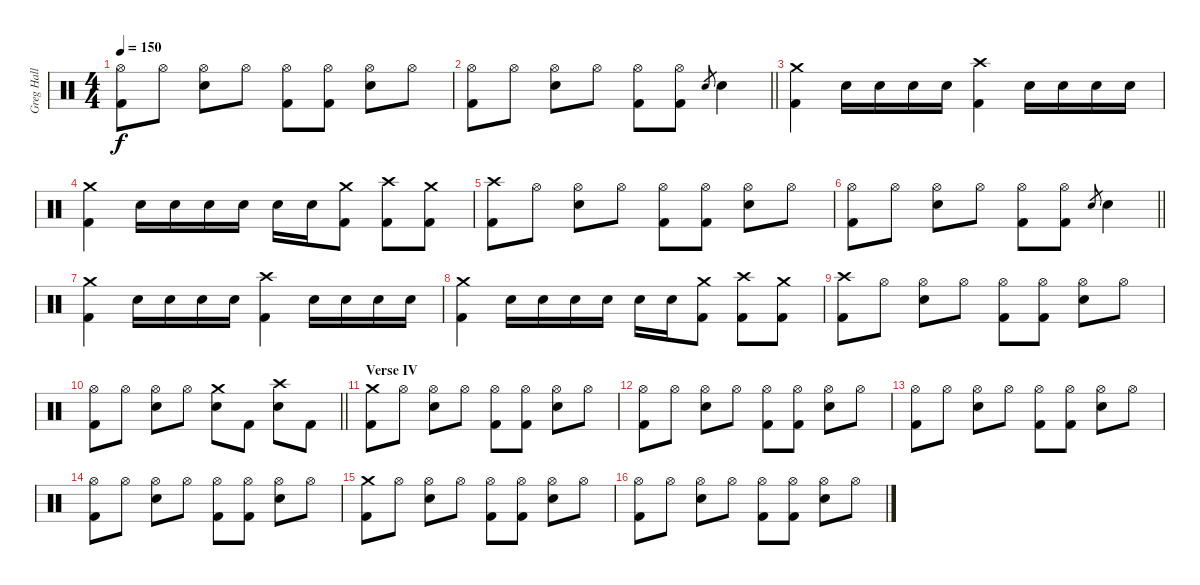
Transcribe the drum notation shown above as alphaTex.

\track ("Greg Hall" "Greg Hall") {instrument percussion}
\staff {score}
\articulation defaults
\ts (4 4)
\tempo 150
\clef neutral
\ks c
("Hi-Hat (open)" "Kick (hit) 2").8{dy f} "Hi-Hat (open)".8 ("Hi-Hat (open)" "Electric Snare (hit)").8 "Hi-Hat (open)".8 ("Hi-Hat (open)" "Kick (hit) 2").8 ("Hi-Hat (open)" "Kick (hit) 2").8 ("Hi-Hat (open)" "Electric Snare (hit)").8 "Hi-Hat (open)".8 |
\barLineRight lightlight
("Hi-Hat (open)" "Kick (hit) 2").8 "Hi-Hat (open)".8 ("Hi-Hat (open)" "Electric Snare (hit)").8 "Hi-Hat (open)".8 ("Hi-Hat (open)" "Kick (hit) 2").8 ("Hi-Hat (open)" "Kick (hit) 2").8 "Electric Snare (hit)".8{gr} "Electric Snare (hit)".4 |
("Crash medium (hit)" "Kick (hit) 2").4 "Electric Snare (hit)".16 "Electric Snare (hit)".16 "Electric Snare (hit)".16 "Electric Snare (hit)".16 ("Crash high (hit)" "Kick (hit) 2").4 "Electric Snare (hit)".16 "Electric Snare (hit)".16 "Electric Snare (hit)".16 "Electric Snare (hit)".16 |
("Crash medium (hit)" "Kick (hit) 2").4 "Electric Snare (hit)".16 "Electric Snare (hit)".16 "Electric Snare (hit)".16 "Electric Snare (hit)".16 "Electric Snare (hit)".16 "Electric Snare (hit)".16 ("Crash medium (hit)" "Kick (hit) 2").8 ("Crash high (hit)" "Kick (hit) 2").8 ("Crash medium (hit)" "Kick (hit) 2").8 |
("Crash high (hit)" "Kick (hit) 2").8 "Hi-Hat (open)".8 ("Hi-Hat (open)" "Electric Snare (hit)").8 "Hi-Hat (open)".8 ("Hi-Hat (open)" "Kick (hit) 2").8 ("Hi-Hat (open)" "Kick (hit) 2").8 ("Hi-Hat (open)" "Electric Snare (hit)").8 "Hi-Hat (open)".8 |
\barLineRight lightlight
("Hi-Hat (open)" "Kick (hit) 2").8 "Hi-Hat (open)".8 ("Hi-Hat (open)" "Electric Snare (hit)").8 "Hi-Hat (open)".8 ("Hi-Hat (open)" "Kick (hit) 2").8 ("Hi-Hat (open)" "Kick (hit) 2").8 "Electric Snare (hit)".8{gr} "Electric Snare (hit)".4 |
("Crash medium (hit)" "Kick (hit) 2").4 "Electric Snare (hit)".16 "Electric Snare (hit)".16 "Electric Snare (hit)".16 "Electric Snare (hit)".16 ("Crash high (hit)" "Kick (hit) 2").4 "Electric Snare (hit)".16 "Electric Snare (hit)".16 "Electric Snare (hit)".16 "Electric Snare (hit)".16 |
("Crash medium (hit)" "Kick (hit) 2").4 "Electric Snare (hit)".16 "Electric Snare (hit)".16 "Electric Snare (hit)".16 "Electric Snare (hit)".16 "Electric Snare (hit)".16 "Electric Snare (hit)".16 ("Crash medium (hit)" "Kick (hit) 2").8 ("Crash high (hit)" "Kick (hit) 2").8 ("Crash medium (hit)" "Kick (hit) 2").8 |
("Crash high (hit)" "Kick (hit) 2").8 "Hi-Hat (open)".8 ("Hi-Hat (open)" "Electric Snare (hit)").8 "Hi-Hat (open)".8 ("Hi-Hat (open)" "Kick (hit) 2").8 ("Hi-Hat (open)" "Kick (hit) 2").8 ("Hi-Hat (open)" "Electric Snare (hit)").8 "Hi-Hat (open)".8 |
\barLineRight lightlight
("Hi-Hat (open)" "Kick (hit) 2").8 "Hi-Hat (open)".8 ("Hi-Hat (open)" "Electric Snare (hit)").8 "Hi-Hat (open)".8 ("Crash medium (hit)" "Electric Snare (hit)").8 "Kick (hit) 2".8 ("Crash high (hit)" "Electric Snare (hit)").8 "Kick (hit) 2".8 |
\section ("" "Verse IV")
("Crash medium (hit)" "Kick (hit) 2").8 "Hi-Hat (open)".8 ("Hi-Hat (open)" "Electric Snare (hit)").8 "Hi-Hat (open)".8 ("Hi-Hat (open)" "Kick (hit) 2").8 ("Hi-Hat (open)" "Kick (hit) 2").8 ("Hi-Hat (open)" "Electric Snare (hit)").8 "Hi-Hat (open)".8 |
("Hi-Hat (open)" "Kick (hit) 2").8 "Hi-Hat (open)".8 ("Hi-Hat (open)" "Electric Snare (hit)").8 "Hi-Hat (open)".8 ("Hi-Hat (open)" "Kick (hit) 2").8 ("Hi-Hat (open)" "Kick (hit) 2").8 ("Hi-Hat (open)" "Electric Snare (hit)").8 "Hi-Hat (open)".8 |
("Hi-Hat (open)" "Kick (hit) 2").8 "Hi-Hat (open)".8 ("Hi-Hat (open)" "Electric Snare (hit)").8 "Hi-Hat (open)".8 ("Hi-Hat (open)" "Kick (hit) 2").8 ("Hi-Hat (open)" "Kick (hit) 2").8 ("Hi-Hat (open)" "Electric Snare (hit)").8 "Hi-Hat (open)".8 |
("Hi-Hat (open)" "Kick (hit) 2").8 "Hi-Hat (open)".8 ("Hi-Hat (open)" "Electric Snare (hit)").8 "Hi-Hat (open)".8 ("Hi-Hat (open)" "Kick (hit) 2").8 ("Hi-Hat (open)" "Kick (hit) 2").8 ("Hi-Hat (open)" "Electric Snare (hit)").8 "Hi-Hat (open)".8 |
("Crash medium (hit)" "Kick (hit) 2").8 "Hi-Hat (open)".8 ("Hi-Hat (open)" "Electric Snare (hit)").8 "Hi-Hat (open)".8 ("Hi-Hat (open)" "Kick (hit) 2").8 ("Hi-Hat (open)" "Kick (hit) 2").8 ("Hi-Hat (open)" "Electric Snare (hit)").8 "Hi-Hat (open)".8 |
("Hi-Hat (open)" "Kick (hit) 2").8 "Hi-Hat (open)".8 ("Hi-Hat (open)" "Electric Snare (hit)").8 "Hi-Hat (open)".8 ("Hi-Hat (open)" "Kick (hit) 2").8 ("Hi-Hat (open)" "Kick (hit) 2").8 ("Hi-Hat (open)" "Electric Snare (hit)").8 "Hi-Hat (open)".8
